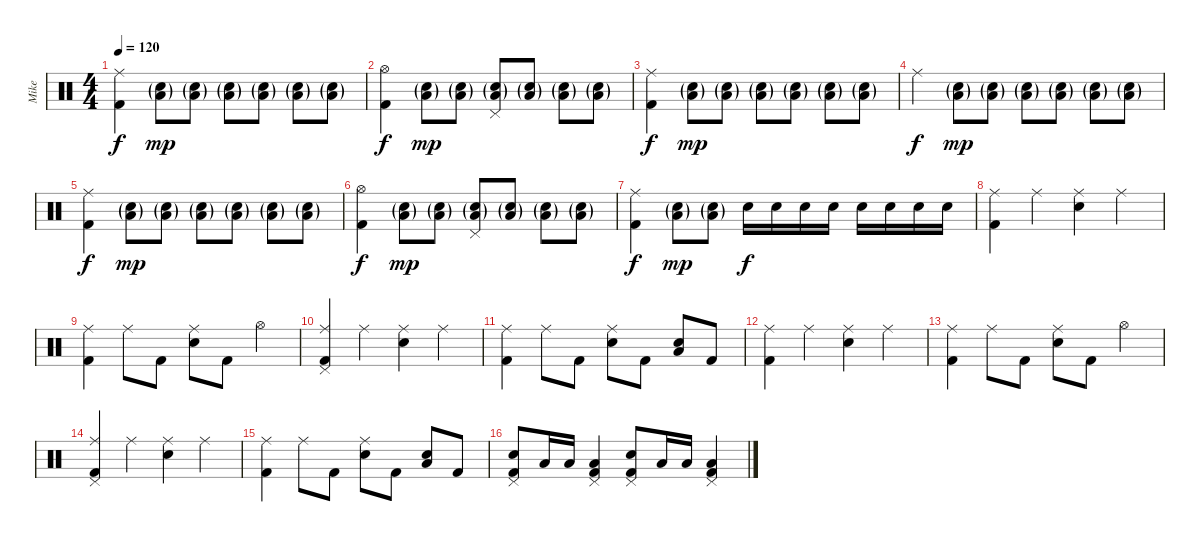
\track ("Mike" "Mike") {instrument percussion}
\staff {score}
\articulation defaults
\ts (4 4)
\tempo 120
\clef neutral
\ks c
("Ride (middle)" "Kick (hit) 2").4{dy f} ("Low Floor Tom (hit)"{g} "Electric Snare (hit)"{g}).8{dy mp} ("Low Floor Tom (hit)"{g} "Electric Snare (hit)"{g}).8 ("Low Floor Tom (hit)"{g} "Electric Snare (hit)"{g}).8 ("Low Floor Tom (hit)"{g} "Electric Snare (hit)"{g}).8 ("Low Floor Tom (hit)"{g} "Electric Snare (hit)"{g}).8 ("Low Floor Tom (hit)"{g} "Electric Snare (hit)"{g}).8 |
("Hi-Hat (open)" "Kick (hit) 2").4{dy f} ("Low Floor Tom (hit)"{g} "Electric Snare (hit)"{g}).8{dy mp} ("Low Floor Tom (hit)"{g} "Electric Snare (hit)"{g}).8 ("Pedal Hi-Hat (hit)" "Low Floor Tom (hit)"{g} "Electric Snare (hit)"{g}).8 ("Low Floor Tom (hit)"{g} "Electric Snare (hit)"{g}).8 ("Low Floor Tom (hit)"{g} "Electric Snare (hit)"{g}).8 ("Low Floor Tom (hit)"{g} "Electric Snare (hit)"{g}).8 |
("Ride (middle)" "Kick (hit) 2").4{dy f} ("Low Floor Tom (hit)"{g} "Electric Snare (hit)"{g}).8{dy mp} ("Low Floor Tom (hit)"{g} "Electric Snare (hit)"{g}).8 ("Low Floor Tom (hit)"{g} "Electric Snare (hit)"{g}).8 ("Low Floor Tom (hit)"{g} "Electric Snare (hit)"{g}).8 ("Low Floor Tom (hit)"{g} "Electric Snare (hit)"{g}).8 ("Low Floor Tom (hit)"{g} "Electric Snare (hit)"{g}).8 |
"Ride (middle)".4{dy f} ("Low Floor Tom (hit)"{g} "Electric Snare (hit)"{g}).8{dy mp} ("Low Floor Tom (hit)"{g} "Electric Snare (hit)"{g}).8 ("Low Floor Tom (hit)"{g} "Electric Snare (hit)"{g}).8 ("Low Floor Tom (hit)"{g} "Electric Snare (hit)"{g}).8 ("Low Floor Tom (hit)"{g} "Electric Snare (hit)"{g}).8 ("Low Floor Tom (hit)"{g} "Electric Snare (hit)"{g}).8 |
("Ride (middle)" "Kick (hit) 2").4{dy f} ("Low Floor Tom (hit)"{g} "Electric Snare (hit)"{g}).8{dy mp} ("Low Floor Tom (hit)"{g} "Electric Snare (hit)"{g}).8 ("Low Floor Tom (hit)"{g} "Electric Snare (hit)"{g}).8 ("Low Floor Tom (hit)"{g} "Electric Snare (hit)"{g}).8 ("Low Floor Tom (hit)"{g} "Electric Snare (hit)"{g}).8 ("Low Floor Tom (hit)"{g} "Electric Snare (hit)"{g}).8 |
("Hi-Hat (open)" "Kick (hit) 2").4{dy f} ("Low Floor Tom (hit)"{g} "Electric Snare (hit)"{g}).8{dy mp} ("Low Floor Tom (hit)"{g} "Electric Snare (hit)"{g}).8 ("Pedal Hi-Hat (hit)" "Low Floor Tom (hit)"{g} "Electric Snare (hit)"{g}).8 ("Low Floor Tom (hit)"{g} "Electric Snare (hit)"{g}).8 ("Low Floor Tom (hit)"{g} "Electric Snare (hit)"{g}).8 ("Low Floor Tom (hit)"{g} "Electric Snare (hit)"{g}).8 |
("Ride (middle)" "Kick (hit) 2").4{dy f} ("Low Floor Tom (hit)"{g} "Electric Snare (hit)"{g}).8{dy mp} ("Low Floor Tom (hit)"{g} "Electric Snare (hit)"{g}).8 "Electric Snare (hit)".16{dy f} "Electric Snare (hit)".16 "Electric Snare (hit)".16 "Electric Snare (hit)".16 "Electric Snare (hit)".16 "Electric Snare (hit)".16 "Electric Snare (hit)".16 "Electric Snare (hit)".16 |
("Ride (middle)" "Kick (hit) 2").4 "Ride (middle)".4 ("Ride (middle)" "Electric Snare (hit)").4 "Ride (middle)".4 |
("Ride (middle)" "Kick (hit) 2").4 "Ride (middle)".8 "Kick (hit) 2".8 ("Ride (middle)" "Electric Snare (hit)").8 "Kick (hit) 2".8 "Hi-Hat (open)".4 |
("Ride (middle)" "Pedal Hi-Hat (hit)" "Kick (hit) 2").4 "Ride (middle)".4 ("Ride (middle)" "Electric Snare (hit)").4 "Ride (middle)".4 |
("Ride (middle)" "Kick (hit) 2").4 "Ride (middle)".8 "Kick (hit) 2".8 ("Ride (middle)" "Electric Snare (hit)").8 "Kick (hit) 2".8 ("Electric Snare (hit)" "Low Floor Tom (hit)").8 "Kick (hit) 2".8 |
("Ride (middle)" "Kick (hit) 2").4 "Ride (middle)".4 ("Ride (middle)" "Electric Snare (hit)").4 "Ride (middle)".4 |
("Ride (middle)" "Kick (hit) 2").4 "Ride (middle)".8 "Kick (hit) 2".8 ("Ride (middle)" "Electric Snare (hit)").8 "Kick (hit) 2".8 "Hi-Hat (open)".4 |
("Ride (middle)" "Pedal Hi-Hat (hit)" "Kick (hit) 2").4 "Ride (middle)".4 ("Ride (middle)" "Electric Snare (hit)").4 "Ride (middle)".4 |
("Ride (middle)" "Kick (hit) 2").4 "Ride (middle)".8 "Kick (hit) 2".8 ("Ride (middle)" "Electric Snare (hit)").8 "Kick (hit) 2".8 ("Electric Snare (hit)" "Low Floor Tom (hit)").8 "Kick (hit) 2".8 |
("Pedal Hi-Hat (hit)" "Electric Snare (hit)" "Kick (hit) 2").8 "Low Tom (hit)".16 "Low Tom (hit)".16 ("Pedal Hi-Hat (hit)" "Low Floor Tom (hit)" "Kick (hit) 2").4 ("Pedal Hi-Hat (hit)" "Electric Snare (hit)" "Kick (hit) 2").8 "Low Tom (hit)".16 "Low Tom (hit)".16 ("Pedal Hi-Hat (hit)" "Low Floor Tom (hit)" "Kick (hit) 2").4
